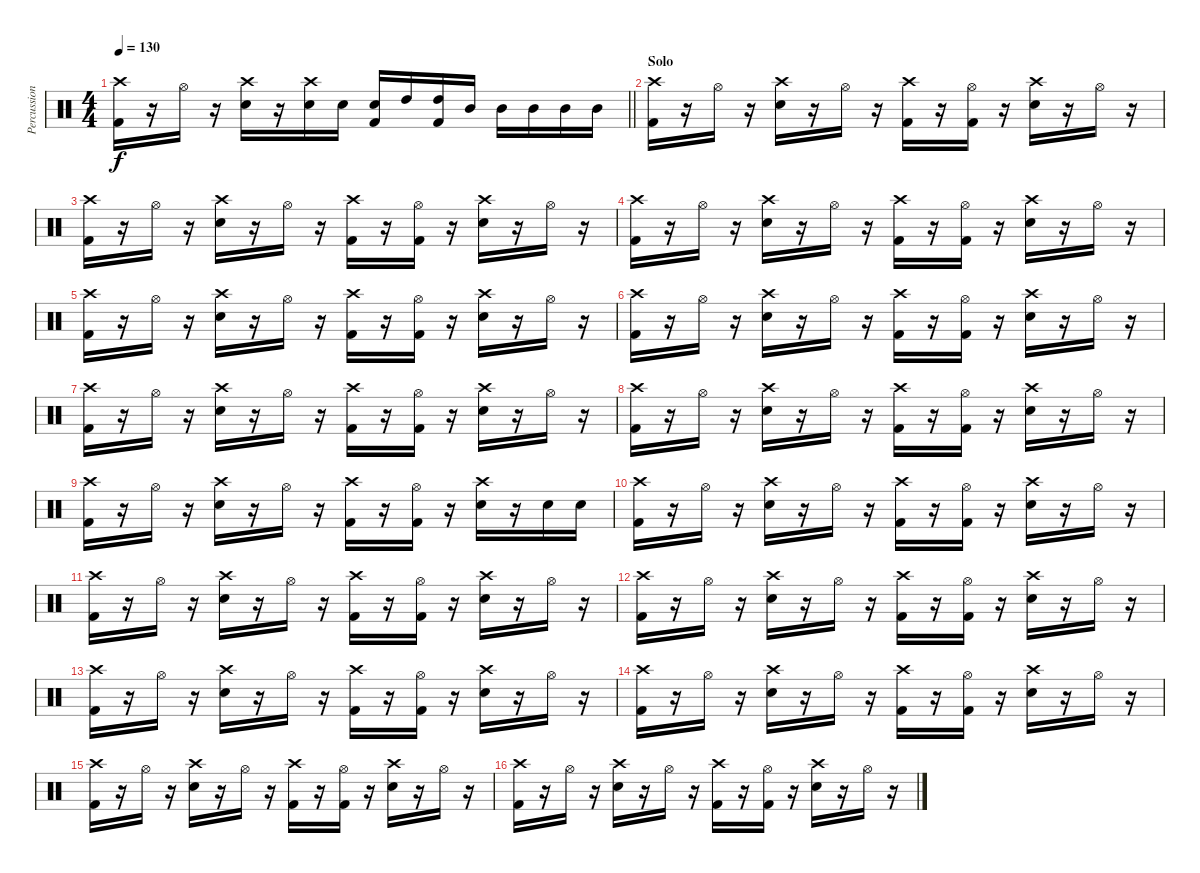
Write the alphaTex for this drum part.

\track ("Percussion" "Percussion") {instrument percussion}
\staff {score}
\articulation defaults
\ts (4 4)
\tempo 130
\clef neutral
\barLineRight lightlight
\ks c
("Crash high (hit)" "Kick (hit) 2").16{dy f} r.16 "Hi-Hat (open)".16 r.16 ("Crash high (hit)" "Snare (hit) 2").16 r.16 ("Crash high (hit)" "Snare (hit) 2").16 "Snare (hit) 2".16 ("Snare (hit) 2" "Kick (hit) 2").16 "High Tom (hit)".16 ("High Tom (hit)" "Kick (hit) 2").16 "Mid Tom (hit)".16 "Mid Tom (hit)".16 "Mid Tom (hit)".16 "Mid Tom (hit)".16 "Mid Tom (hit)".16 |
\section ("" "Solo")
("Crash high (hit)" "Kick (hit) 2").16 r.16 "Hi-Hat (open)".16 r.16 ("Crash high (hit)" "Snare (hit) 2").16 r.16 "Hi-Hat (open)".16 r.16 ("Crash high (hit)" "Kick (hit) 2").16 r.16 ("Hi-Hat (open)" "Kick (hit) 2").16 r.16 ("Crash high (hit)" "Snare (hit) 2").16 r.16 "Hi-Hat (open)".16 r.16 |
("Crash high (hit)" "Kick (hit) 2").16 r.16 "Hi-Hat (open)".16 r.16 ("Crash high (hit)" "Snare (hit) 2").16 r.16 "Hi-Hat (open)".16 r.16 ("Crash high (hit)" "Kick (hit) 2").16 r.16 ("Hi-Hat (open)" "Kick (hit) 2").16 r.16 ("Crash high (hit)" "Snare (hit) 2").16 r.16 "Hi-Hat (open)".16 r.16 |
("Crash high (hit)" "Kick (hit) 2").16 r.16 "Hi-Hat (open)".16 r.16 ("Crash high (hit)" "Snare (hit) 2").16 r.16 "Hi-Hat (open)".16 r.16 ("Crash high (hit)" "Kick (hit) 2").16 r.16 ("Hi-Hat (open)" "Kick (hit) 2").16 r.16 ("Crash high (hit)" "Snare (hit) 2").16 r.16 "Hi-Hat (open)".16 r.16 |
("Crash high (hit)" "Kick (hit) 2").16 r.16 "Hi-Hat (open)".16 r.16 ("Crash high (hit)" "Snare (hit) 2").16 r.16 "Hi-Hat (open)".16 r.16 ("Crash high (hit)" "Kick (hit) 2").16 r.16 ("Hi-Hat (open)" "Kick (hit) 2").16 r.16 ("Crash high (hit)" "Snare (hit) 2").16 r.16 "Hi-Hat (open)".16 r.16 |
("Crash high (hit)" "Kick (hit) 2").16 r.16 "Hi-Hat (open)".16 r.16 ("Crash high (hit)" "Snare (hit) 2").16 r.16 "Hi-Hat (open)".16 r.16 ("Crash high (hit)" "Kick (hit) 2").16 r.16 ("Hi-Hat (open)" "Kick (hit) 2").16 r.16 ("Crash high (hit)" "Snare (hit) 2").16 r.16 "Hi-Hat (open)".16 r.16 |
("Crash high (hit)" "Kick (hit) 2").16 r.16 "Hi-Hat (open)".16 r.16 ("Crash high (hit)" "Snare (hit) 2").16 r.16 "Hi-Hat (open)".16 r.16 ("Crash high (hit)" "Kick (hit) 2").16 r.16 ("Hi-Hat (open)" "Kick (hit) 2").16 r.16 ("Crash high (hit)" "Snare (hit) 2").16 r.16 "Hi-Hat (open)".16 r.16 |
("Crash high (hit)" "Kick (hit) 2").16 r.16 "Hi-Hat (open)".16 r.16 ("Crash high (hit)" "Snare (hit) 2").16 r.16 "Hi-Hat (open)".16 r.16 ("Crash high (hit)" "Kick (hit) 2").16 r.16 ("Hi-Hat (open)" "Kick (hit) 2").16 r.16 ("Crash high (hit)" "Snare (hit) 2").16 r.16 "Hi-Hat (open)".16 r.16 |
("Crash high (hit)" "Kick (hit) 2").16 r.16 "Hi-Hat (open)".16 r.16 ("Crash high (hit)" "Snare (hit) 2").16 r.16 "Hi-Hat (open)".16 r.16 ("Crash high (hit)" "Kick (hit) 2").16 r.16 ("Hi-Hat (open)" "Kick (hit) 2").16 r.16 ("Crash high (hit)" "Snare (hit) 2").16 r.16 "Snare (hit) 2".16 "Snare (hit) 2".16 |
("Crash high (hit)" "Kick (hit) 2").16 r.16 "Hi-Hat (open)".16 r.16 ("Crash high (hit)" "Snare (hit) 2").16 r.16 "Hi-Hat (open)".16 r.16 ("Crash high (hit)" "Kick (hit) 2").16 r.16 ("Hi-Hat (open)" "Kick (hit) 2").16 r.16 ("Crash high (hit)" "Snare (hit) 2").16 r.16 "Hi-Hat (open)".16 r.16 |
("Crash high (hit)" "Kick (hit) 2").16 r.16 "Hi-Hat (open)".16 r.16 ("Crash high (hit)" "Snare (hit) 2").16 r.16 "Hi-Hat (open)".16 r.16 ("Crash high (hit)" "Kick (hit) 2").16 r.16 ("Hi-Hat (open)" "Kick (hit) 2").16 r.16 ("Crash high (hit)" "Snare (hit) 2").16 r.16 "Hi-Hat (open)".16 r.16 |
("Crash high (hit)" "Kick (hit) 2").16 r.16 "Hi-Hat (open)".16 r.16 ("Crash high (hit)" "Snare (hit) 2").16 r.16 "Hi-Hat (open)".16 r.16 ("Crash high (hit)" "Kick (hit) 2").16 r.16 ("Hi-Hat (open)" "Kick (hit) 2").16 r.16 ("Crash high (hit)" "Snare (hit) 2").16 r.16 "Hi-Hat (open)".16 r.16 |
("Crash high (hit)" "Kick (hit) 2").16 r.16 "Hi-Hat (open)".16 r.16 ("Crash high (hit)" "Snare (hit) 2").16 r.16 "Hi-Hat (open)".16 r.16 ("Crash high (hit)" "Kick (hit) 2").16 r.16 ("Hi-Hat (open)" "Kick (hit) 2").16 r.16 ("Crash high (hit)" "Snare (hit) 2").16 r.16 "Hi-Hat (open)".16 r.16 |
("Crash high (hit)" "Kick (hit) 2").16 r.16 "Hi-Hat (open)".16 r.16 ("Crash high (hit)" "Snare (hit) 2").16 r.16 "Hi-Hat (open)".16 r.16 ("Crash high (hit)" "Kick (hit) 2").16 r.16 ("Hi-Hat (open)" "Kick (hit) 2").16 r.16 ("Crash high (hit)" "Snare (hit) 2").16 r.16 "Hi-Hat (open)".16 r.16 |
("Crash high (hit)" "Kick (hit) 2").16 r.16 "Hi-Hat (open)".16 r.16 ("Crash high (hit)" "Snare (hit) 2").16 r.16 "Hi-Hat (open)".16 r.16 ("Crash high (hit)" "Kick (hit) 2").16 r.16 ("Hi-Hat (open)" "Kick (hit) 2").16 r.16 ("Crash high (hit)" "Snare (hit) 2").16 r.16 "Hi-Hat (open)".16 r.16 |
("Crash high (hit)" "Kick (hit) 2").16 r.16 "Hi-Hat (open)".16 r.16 ("Crash high (hit)" "Snare (hit) 2").16 r.16 "Hi-Hat (open)".16 r.16 ("Crash high (hit)" "Kick (hit) 2").16 r.16 ("Hi-Hat (open)" "Kick (hit) 2").16 r.16 ("Crash high (hit)" "Snare (hit) 2").16 r.16 "Hi-Hat (open)".16 r.16
